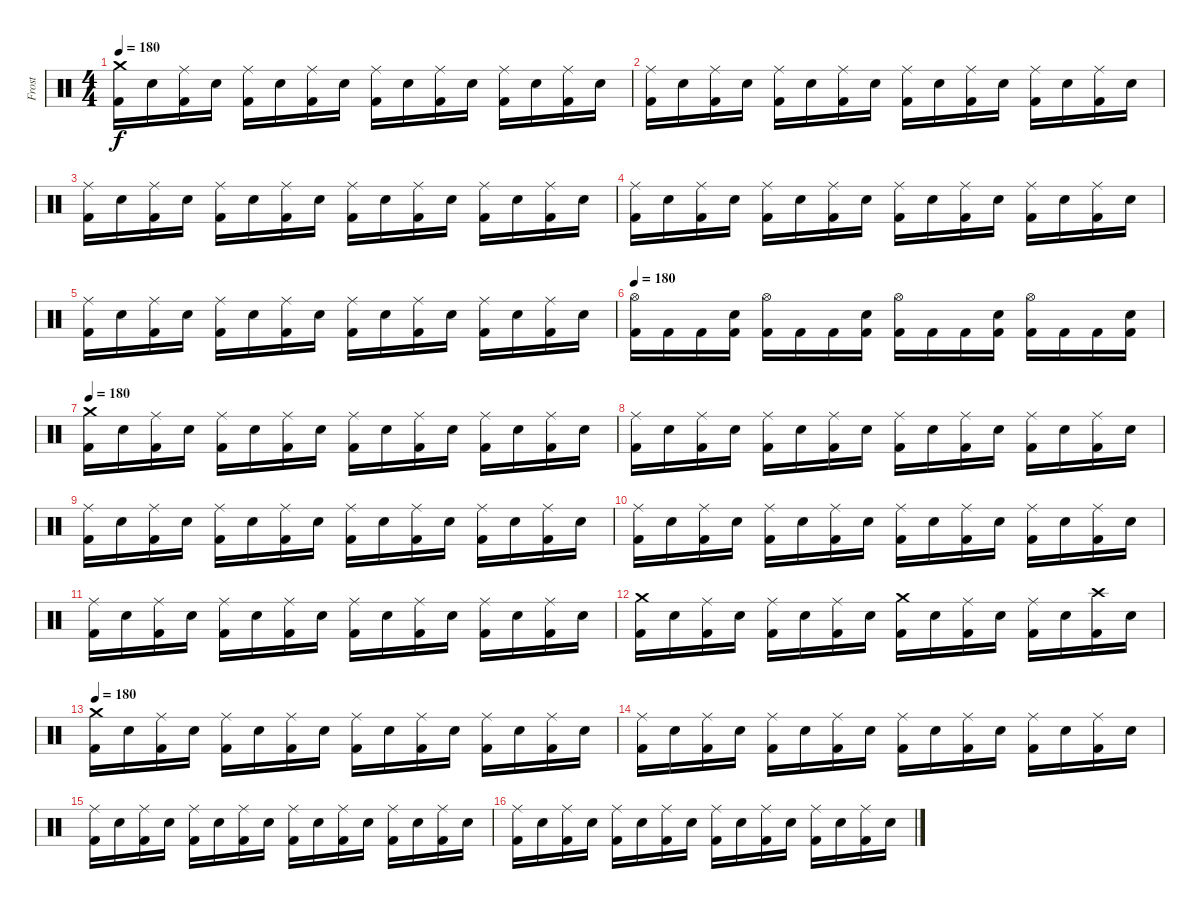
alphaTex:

\track ("Frost" "Frost") {instrument percussion}
\staff {score}
\articulation defaults
\ts (4 4)
\tempo 180
\clef neutral
\ks c
("Crash medium (hit)" "Kick (hit) 2").16{dy f} "Electric Snare (hit)".16 ("Ride (middle)" "Kick (hit) 2").16 "Electric Snare (hit)".16 ("Ride (middle)" "Kick (hit) 2").16 "Electric Snare (hit)".16 ("Ride (middle)" "Kick (hit) 2").16 "Electric Snare (hit)".16 ("Ride (middle)" "Kick (hit) 2").16 "Electric Snare (hit)".16 ("Ride (middle)" "Kick (hit) 2").16 "Electric Snare (hit)".16 ("Ride (middle)" "Kick (hit) 2").16 "Electric Snare (hit)".16 ("Ride (middle)" "Kick (hit) 2").16 "Electric Snare (hit)".16 |
("Ride (middle)" "Kick (hit) 2").16 "Electric Snare (hit)".16 ("Ride (middle)" "Kick (hit) 2").16 "Electric Snare (hit)".16 ("Ride (middle)" "Kick (hit) 2").16 "Electric Snare (hit)".16 ("Ride (middle)" "Kick (hit) 2").16 "Electric Snare (hit)".16 ("Ride (middle)" "Kick (hit) 2").16 "Electric Snare (hit)".16 ("Ride (middle)" "Kick (hit) 2").16 "Electric Snare (hit)".16 ("Ride (middle)" "Kick (hit) 2").16 "Electric Snare (hit)".16 ("Ride (middle)" "Kick (hit) 2").16 "Electric Snare (hit)".16 |
("Ride (middle)" "Kick (hit) 2").16 "Electric Snare (hit)".16 ("Ride (middle)" "Kick (hit) 2").16 "Electric Snare (hit)".16 ("Ride (middle)" "Kick (hit) 2").16 "Electric Snare (hit)".16 ("Ride (middle)" "Kick (hit) 2").16 "Electric Snare (hit)".16 ("Ride (middle)" "Kick (hit) 2").16 "Electric Snare (hit)".16 ("Ride (middle)" "Kick (hit) 2").16 "Electric Snare (hit)".16 ("Ride (middle)" "Kick (hit) 2").16 "Electric Snare (hit)".16 ("Ride (middle)" "Kick (hit) 2").16 "Electric Snare (hit)".16 |
("Ride (middle)" "Kick (hit) 2").16 "Electric Snare (hit)".16 ("Ride (middle)" "Kick (hit) 2").16 "Electric Snare (hit)".16 ("Ride (middle)" "Kick (hit) 2").16 "Electric Snare (hit)".16 ("Ride (middle)" "Kick (hit) 2").16 "Electric Snare (hit)".16 ("Ride (middle)" "Kick (hit) 2").16 "Electric Snare (hit)".16 ("Ride (middle)" "Kick (hit) 2").16 "Electric Snare (hit)".16 ("Ride (middle)" "Kick (hit) 2").16 "Electric Snare (hit)".16 ("Ride (middle)" "Kick (hit) 2").16 "Electric Snare (hit)".16 |
("Ride (middle)" "Kick (hit) 2").16 "Electric Snare (hit)".16 ("Ride (middle)" "Kick (hit) 2").16 "Electric Snare (hit)".16 ("Ride (middle)" "Kick (hit) 2").16 "Electric Snare (hit)".16 ("Ride (middle)" "Kick (hit) 2").16 "Electric Snare (hit)".16 ("Ride (middle)" "Kick (hit) 2").16 "Electric Snare (hit)".16 ("Ride (middle)" "Kick (hit) 2").16 "Electric Snare (hit)".16 ("Ride (middle)" "Kick (hit) 2").16 "Electric Snare (hit)".16 ("Ride (middle)" "Kick (hit) 2").16 "Electric Snare (hit)".16 |
\tempo 180
("Hi-Hat (open)" "Kick (hit) 2").16 "Kick (hit) 2".16 "Kick (hit) 2".16 ("Electric Snare (hit)" "Kick (hit) 2").16 ("Hi-Hat (open)" "Kick (hit) 2").16 "Kick (hit) 2".16 "Kick (hit) 2".16 ("Electric Snare (hit)" "Kick (hit) 2").16 ("Hi-Hat (open)" "Kick (hit) 2").16 "Kick (hit) 2".16 "Kick (hit) 2".16 ("Electric Snare (hit)" "Kick (hit) 2").16 ("Hi-Hat (open)" "Kick (hit) 2").16 "Kick (hit) 2".16 "Kick (hit) 2".16 ("Electric Snare (hit)" "Kick (hit) 2").16 |
\tempo 180
("Crash medium (hit)" "Kick (hit) 2").16 "Electric Snare (hit)".16 ("Ride (middle)" "Kick (hit) 2").16 "Electric Snare (hit)".16 ("Ride (middle)" "Kick (hit) 2").16 "Electric Snare (hit)".16 ("Ride (middle)" "Kick (hit) 2").16 "Electric Snare (hit)".16 ("Ride (middle)" "Kick (hit) 2").16 "Electric Snare (hit)".16 ("Ride (middle)" "Kick (hit) 2").16 "Electric Snare (hit)".16 ("Ride (middle)" "Kick (hit) 2").16 "Electric Snare (hit)".16 ("Ride (middle)" "Kick (hit) 2").16 "Electric Snare (hit)".16 |
("Ride (middle)" "Kick (hit) 2").16 "Electric Snare (hit)".16 ("Ride (middle)" "Kick (hit) 2").16 "Electric Snare (hit)".16 ("Ride (middle)" "Kick (hit) 2").16 "Electric Snare (hit)".16 ("Ride (middle)" "Kick (hit) 2").16 "Electric Snare (hit)".16 ("Ride (middle)" "Kick (hit) 2").16 "Electric Snare (hit)".16 ("Ride (middle)" "Kick (hit) 2").16 "Electric Snare (hit)".16 ("Ride (middle)" "Kick (hit) 2").16 "Electric Snare (hit)".16 ("Ride (middle)" "Kick (hit) 2").16 "Electric Snare (hit)".16 |
("Ride (middle)" "Kick (hit) 2").16 "Electric Snare (hit)".16 ("Ride (middle)" "Kick (hit) 2").16 "Electric Snare (hit)".16 ("Ride (middle)" "Kick (hit) 2").16 "Electric Snare (hit)".16 ("Ride (middle)" "Kick (hit) 2").16 "Electric Snare (hit)".16 ("Ride (middle)" "Kick (hit) 2").16 "Electric Snare (hit)".16 ("Ride (middle)" "Kick (hit) 2").16 "Electric Snare (hit)".16 ("Ride (middle)" "Kick (hit) 2").16 "Electric Snare (hit)".16 ("Ride (middle)" "Kick (hit) 2").16 "Electric Snare (hit)".16 |
("Ride (middle)" "Kick (hit) 2").16 "Electric Snare (hit)".16 ("Ride (middle)" "Kick (hit) 2").16 "Electric Snare (hit)".16 ("Ride (middle)" "Kick (hit) 2").16 "Electric Snare (hit)".16 ("Ride (middle)" "Kick (hit) 2").16 "Electric Snare (hit)".16 ("Ride (middle)" "Kick (hit) 2").16 "Electric Snare (hit)".16 ("Ride (middle)" "Kick (hit) 2").16 "Electric Snare (hit)".16 ("Ride (middle)" "Kick (hit) 2").16 "Electric Snare (hit)".16 ("Ride (middle)" "Kick (hit) 2").16 "Electric Snare (hit)".16 |
("Ride (middle)" "Kick (hit) 2").16 "Electric Snare (hit)".16 ("Ride (middle)" "Kick (hit) 2").16 "Electric Snare (hit)".16 ("Ride (middle)" "Kick (hit) 2").16 "Electric Snare (hit)".16 ("Ride (middle)" "Kick (hit) 2").16 "Electric Snare (hit)".16 ("Ride (middle)" "Kick (hit) 2").16 "Electric Snare (hit)".16 ("Ride (middle)" "Kick (hit) 2").16 "Electric Snare (hit)".16 ("Ride (middle)" "Kick (hit) 2").16 "Electric Snare (hit)".16 ("Ride (middle)" "Kick (hit) 2").16 "Electric Snare (hit)".16 |
("Crash medium (hit)" "Kick (hit) 2").16 "Electric Snare (hit)".16 ("Ride (middle)" "Kick (hit) 2").16 "Electric Snare (hit)".16 ("Ride (middle)" "Kick (hit) 2").16 "Electric Snare (hit)".16 ("Ride (middle)" "Kick (hit) 2").16 "Electric Snare (hit)".16 ("Crash medium (hit)" "Kick (hit) 2").16 "Electric Snare (hit)".16 ("Ride (middle)" "Kick (hit) 2").16 "Electric Snare (hit)".16 ("Ride (middle)" "Kick (hit) 2").16 "Electric Snare (hit)".16 ("Crash high (hit)" "Kick (hit) 2").16 "Electric Snare (hit)".16 |
\tempo 180
("Crash medium (hit)" "Kick (hit) 2").16 "Electric Snare (hit)".16 ("Ride (middle)" "Kick (hit) 2").16 "Electric Snare (hit)".16 ("Ride (middle)" "Kick (hit) 2").16 "Electric Snare (hit)".16 ("Ride (middle)" "Kick (hit) 2").16 "Electric Snare (hit)".16 ("Ride (middle)" "Kick (hit) 2").16 "Electric Snare (hit)".16 ("Ride (middle)" "Kick (hit) 2").16 "Electric Snare (hit)".16 ("Ride (middle)" "Kick (hit) 2").16 "Electric Snare (hit)".16 ("Ride (middle)" "Kick (hit) 2").16 "Electric Snare (hit)".16 |
("Ride (middle)" "Kick (hit) 2").16 "Electric Snare (hit)".16 ("Ride (middle)" "Kick (hit) 2").16 "Electric Snare (hit)".16 ("Ride (middle)" "Kick (hit) 2").16 "Electric Snare (hit)".16 ("Ride (middle)" "Kick (hit) 2").16 "Electric Snare (hit)".16 ("Ride (middle)" "Kick (hit) 2").16 "Electric Snare (hit)".16 ("Ride (middle)" "Kick (hit) 2").16 "Electric Snare (hit)".16 ("Ride (middle)" "Kick (hit) 2").16 "Electric Snare (hit)".16 ("Ride (middle)" "Kick (hit) 2").16 "Electric Snare (hit)".16 |
("Ride (middle)" "Kick (hit) 2").16 "Electric Snare (hit)".16 ("Ride (middle)" "Kick (hit) 2").16 "Electric Snare (hit)".16 ("Ride (middle)" "Kick (hit) 2").16 "Electric Snare (hit)".16 ("Ride (middle)" "Kick (hit) 2").16 "Electric Snare (hit)".16 ("Ride (middle)" "Kick (hit) 2").16 "Electric Snare (hit)".16 ("Ride (middle)" "Kick (hit) 2").16 "Electric Snare (hit)".16 ("Ride (middle)" "Kick (hit) 2").16 "Electric Snare (hit)".16 ("Ride (middle)" "Kick (hit) 2").16 "Electric Snare (hit)".16 |
("Ride (middle)" "Kick (hit) 2").16 "Electric Snare (hit)".16 ("Ride (middle)" "Kick (hit) 2").16 "Electric Snare (hit)".16 ("Ride (middle)" "Kick (hit) 2").16 "Electric Snare (hit)".16 ("Ride (middle)" "Kick (hit) 2").16 "Electric Snare (hit)".16 ("Ride (middle)" "Kick (hit) 2").16 "Electric Snare (hit)".16 ("Ride (middle)" "Kick (hit) 2").16 "Electric Snare (hit)".16 ("Ride (middle)" "Kick (hit) 2").16 "Electric Snare (hit)".16 ("Ride (middle)" "Kick (hit) 2").16 "Electric Snare (hit)".16
